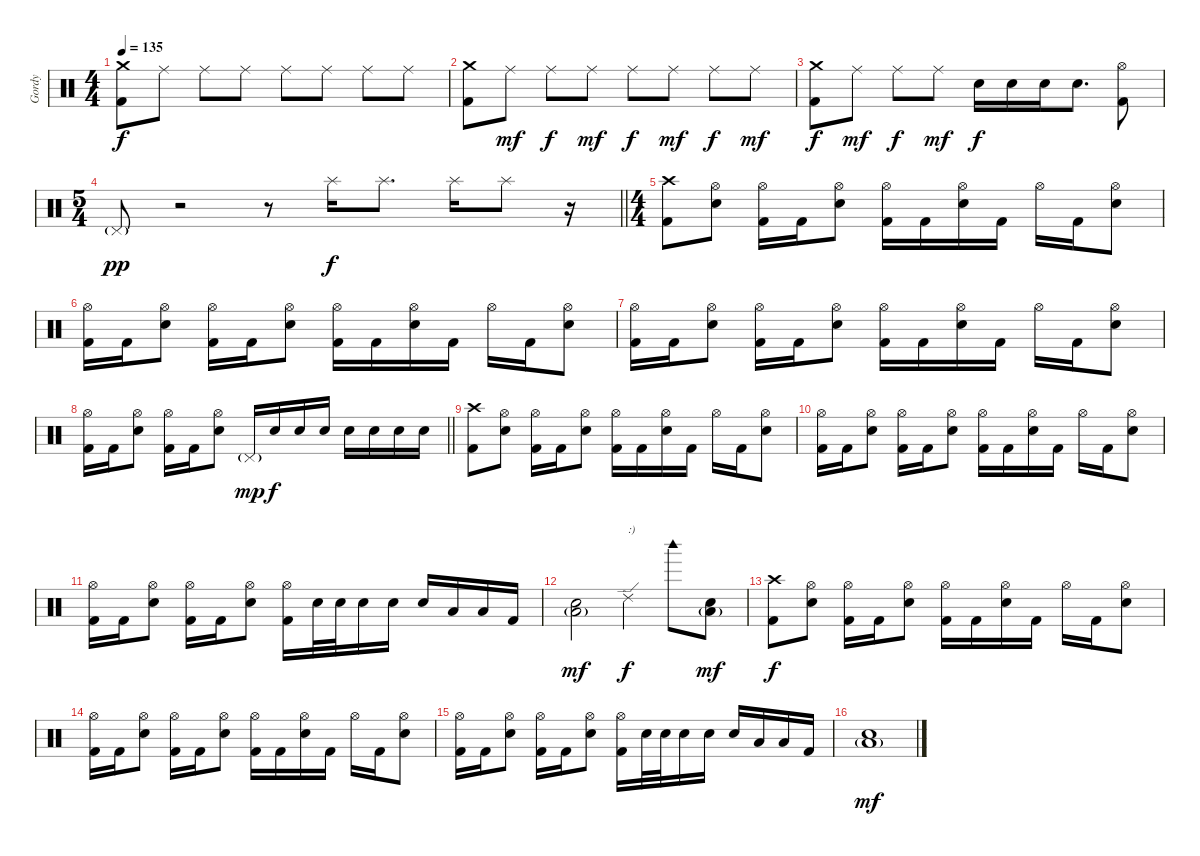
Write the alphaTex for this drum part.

\track ("Gordy" "Gordy") {instrument percussion}
\staff {score}
\articulation defaults
\ts (4 4)
\tempo 135
\clef neutral
\ks c
("Crash medium (hit)" "Kick (hit) 2").8{dy f} "Ride (middle)".8 "Ride (middle)".8 "Ride (middle)".8 "Ride (middle)".8 "Ride (middle)".8 "Ride (middle)".8 "Ride (middle)".8 |
("Crash medium (hit)" "Kick (hit) 2").8 "Ride (middle)".8{dy mf} "Ride (middle)".8{dy f} "Ride (middle)".8{dy mf} "Ride (middle)".8{dy f} "Ride (middle)".8{dy mf} "Ride (middle)".8{dy f} "Ride (middle)".8{dy mf} |
("Crash medium (hit)" "Kick (hit) 2").8{dy f} "Ride (middle)".8{dy mf} "Ride (middle)".8{dy f} "Ride (middle)".8{dy mf} "Electric Snare (hit)".16{dy f} "Electric Snare (hit)".16 "Electric Snare (hit)".16 "Electric Snare (hit)".8{d} ("Hi-Hat (open)" "Kick (hit) 2").8 |
\ts (5 4)
\barLineRight lightlight "Pedal Hi-Hat (hit)"{g}.8{dy pp}
r.2 r.8 "Splash (hit)".16{dy f} "Splash (hit)".8{d} "Splash (hit)".16 "Splash (hit)".8 r.16 |
\ts (4 4)
\section ("" "")
("Crash high (hit)" "Kick (hit) 2").8 ("Hi-Hat (open)" "Electric Snare (hit)").8 ("Hi-Hat (open)" "Kick (hit) 2").16 "Kick (hit) 2".16 ("Hi-Hat (open)" "Electric Snare (hit)").8 ("Hi-Hat (open)" "Kick (hit) 2").16 "Kick (hit) 2".16 ("Hi-Hat (open)" "Electric Snare (hit)").16 "Kick (hit) 2".16 "Hi-Hat (open)".16 "Kick (hit) 2".16 ("Hi-Hat (open)" "Electric Snare (hit)").8 |
("Hi-Hat (open)" "Kick (hit) 2").16 "Kick (hit) 2".16 ("Hi-Hat (open)" "Electric Snare (hit)").8 ("Hi-Hat (open)" "Kick (hit) 2").16 "Kick (hit) 2".16 ("Hi-Hat (open)" "Electric Snare (hit)").8 ("Hi-Hat (open)" "Kick (hit) 2").16 "Kick (hit) 2".16 ("Hi-Hat (open)" "Electric Snare (hit)").16 "Kick (hit) 2".16 "Hi-Hat (open)".16 "Kick (hit) 2".16 ("Hi-Hat (open)" "Electric Snare (hit)").8 |
("Hi-Hat (open)" "Kick (hit) 2").16 "Kick (hit) 2".16 ("Hi-Hat (open)" "Electric Snare (hit)").8 ("Hi-Hat (open)" "Kick (hit) 2").16 "Kick (hit) 2".16 ("Hi-Hat (open)" "Electric Snare (hit)").8 ("Hi-Hat (open)" "Kick (hit) 2").16 "Kick (hit) 2".16 ("Hi-Hat (open)" "Electric Snare (hit)").16 "Kick (hit) 2".16 "Hi-Hat (open)".16 "Kick (hit) 2".16 ("Hi-Hat (open)" "Electric Snare (hit)").8 |
\barLineRight lightlight
("Hi-Hat (open)" "Kick (hit) 2").16 "Kick (hit) 2".16 ("Hi-Hat (open)" "Electric Snare (hit)").8 ("Hi-Hat (open)" "Kick (hit) 2").16 "Kick (hit) 2".16 ("Hi-Hat (open)" "Electric Snare (hit)").8 "Pedal Hi-Hat (hit)"{g}.16{dy mp} "Electric Snare (hit)".16{dy f} "Electric Snare (hit)".16 "Electric Snare (hit)".16 "Electric Snare (hit)".16 "Electric Snare (hit)".16 "Electric Snare (hit)".16 "Electric Snare (hit)".16 |
\section ("" "")
("Crash high (hit)" "Kick (hit) 2").8 ("Hi-Hat (open)" "Electric Snare (hit)").8 ("Hi-Hat (open)" "Kick (hit) 2").16 "Kick (hit) 2".16 ("Hi-Hat (open)" "Electric Snare (hit)").8 ("Hi-Hat (open)" "Kick (hit) 2").16 "Kick (hit) 2".16 ("Hi-Hat (open)" "Electric Snare (hit)").16 "Kick (hit) 2".16 "Hi-Hat (open)".16 "Kick (hit) 2".16 ("Hi-Hat (open)" "Electric Snare (hit)").8 |
("Hi-Hat (open)" "Kick (hit) 2").16 "Kick (hit) 2".16 ("Hi-Hat (open)" "Electric Snare (hit)").8 ("Hi-Hat (open)" "Kick (hit) 2").16 "Kick (hit) 2".16 ("Hi-Hat (open)" "Electric Snare (hit)").8 ("Hi-Hat (open)" "Kick (hit) 2").16 "Kick (hit) 2".16 ("Hi-Hat (open)" "Electric Snare (hit)").16 "Kick (hit) 2".16 "Hi-Hat (open)".16 "Kick (hit) 2".16 ("Hi-Hat (open)" "Electric Snare (hit)").8 |
("Hi-Hat (open)" "Kick (hit) 2").16 "Kick (hit) 2".16 ("Hi-Hat (open)" "Electric Snare (hit)").8 ("Hi-Hat (open)" "Kick (hit) 2").16 "Kick (hit) 2".16 ("Hi-Hat (open)" "Electric Snare (hit)").8 ("Hi-Hat (open)" "Kick (hit) 2").16 "Electric Snare (hit)".32 "Electric Snare (hit)".32 "Electric Snare (hit)".16 "Electric Snare (hit)".16 "Electric Snare (hit)".16 "Low Tom (hit)".16 "Low Floor Tom (hit)".16 "Kick (hit) 2".16 |
("Electric Snare (hit)" "Low Floor Tom (hit)"{g}).2{dy mf} "Ride (edge) 2".4{txt ":)" dy f} "Woodblock high (hit)".8 ("Electric Snare (hit)" "Low Floor Tom (hit)"{g}).8{dy mf} |
("Crash high (hit)" "Kick (hit) 2").8{dy f} ("Hi-Hat (open)" "Electric Snare (hit)").8 ("Hi-Hat (open)" "Kick (hit) 2").16 "Kick (hit) 2".16 ("Hi-Hat (open)" "Electric Snare (hit)").8 ("Hi-Hat (open)" "Kick (hit) 2").16 "Kick (hit) 2".16 ("Hi-Hat (open)" "Electric Snare (hit)").16 "Kick (hit) 2".16 "Hi-Hat (open)".16 "Kick (hit) 2".16 ("Hi-Hat (open)" "Electric Snare (hit)").8 |
("Hi-Hat (open)" "Kick (hit) 2").16 "Kick (hit) 2".16 ("Hi-Hat (open)" "Electric Snare (hit)").8 ("Hi-Hat (open)" "Kick (hit) 2").16 "Kick (hit) 2".16 ("Hi-Hat (open)" "Electric Snare (hit)").8 ("Hi-Hat (open)" "Kick (hit) 2").16 "Kick (hit) 2".16 ("Hi-Hat (open)" "Electric Snare (hit)").16 "Kick (hit) 2".16 "Hi-Hat (open)".16 "Kick (hit) 2".16 ("Hi-Hat (open)" "Electric Snare (hit)").8 |
("Hi-Hat (open)" "Kick (hit) 2").16 "Kick (hit) 2".16 ("Hi-Hat (open)" "Electric Snare (hit)").8 ("Hi-Hat (open)" "Kick (hit) 2").16 "Kick (hit) 2".16 ("Hi-Hat (open)" "Electric Snare (hit)").8 ("Hi-Hat (open)" "Kick (hit) 2").16 "Electric Snare (hit)".32 "Electric Snare (hit)".32 "Electric Snare (hit)".16 "Electric Snare (hit)".16 "Electric Snare (hit)".16 "Low Tom (hit)".16 "Low Floor Tom (hit)".16 "Kick (hit) 2".16 |
("Electric Snare (hit)" "Low Floor Tom (hit)"{g}).1{dy mf}
